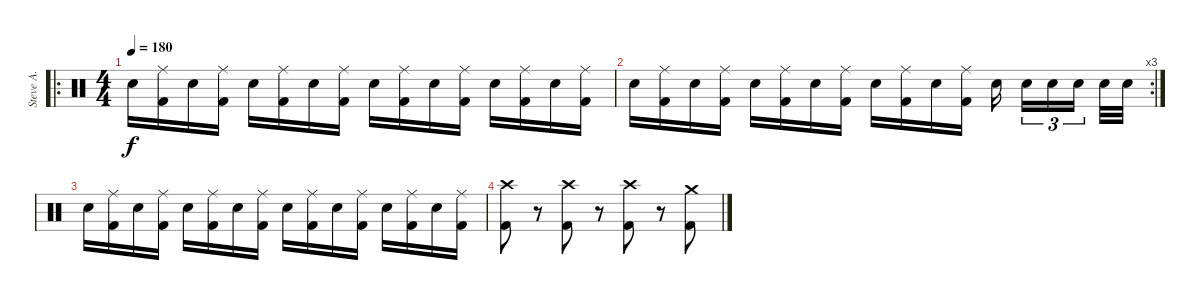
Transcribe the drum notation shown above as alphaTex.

\track ("Steve A." "Steve A.") {instrument percussion}
\staff {score}
\articulation defaults
\ro
\ts (4 4)
\tempo 180
\clef neutral
\ks c "Electric Snare (hit)".16{dy f}
("Kick (hit) 2" "Ride (middle)").16 "Electric Snare (hit)".16 ("Kick (hit) 2" "Ride (middle)").16 "Electric Snare (hit)".16 ("Kick (hit) 2" "Ride (middle)").16 "Electric Snare (hit)".16 ("Kick (hit) 2" "Ride (middle)").16 "Electric Snare (hit)".16 ("Kick (hit) 2" "Ride (middle)").16 "Electric Snare (hit)".16 ("Kick (hit) 2" "Ride (middle)").16 "Electric Snare (hit)".16 ("Kick (hit) 2" "Ride (middle)").16 "Electric Snare (hit)".16 ("Kick (hit) 2" "Ride (middle)").16 |
\rc 3 "Electric Snare (hit)".16
("Kick (hit) 2" "Ride (middle)").16 "Electric Snare (hit)".16 ("Kick (hit) 2" "Ride (middle)").16 "Electric Snare (hit)".16 ("Kick (hit) 2" "Ride (middle)").16 "Electric Snare (hit)".16 ("Kick (hit) 2" "Ride (middle)").16 "Electric Snare (hit)".16 ("Kick (hit) 2" "Ride (middle)").16 "Electric Snare (hit)".16 ("Kick (hit) 2" "Ride (middle)").16 "Electric Snare (hit)".16 "Electric Snare (hit)".16{tu (3 2)} "Electric Snare (hit)".16{tu (3 2)} "Electric Snare (hit)".16{tu (3 2)} "Electric Snare (hit)".32 "Electric Snare (hit)".32 |
"Electric Snare (hit)".16 ("Kick (hit) 2" "Ride (middle)").16 "Electric Snare (hit)".16 ("Kick (hit) 2" "Ride (middle)").16 "Electric Snare (hit)".16 ("Kick (hit) 2" "Ride (middle)").16 "Electric Snare (hit)".16 ("Kick (hit) 2" "Ride (middle)").16 "Electric Snare (hit)".16 ("Kick (hit) 2" "Ride (middle)").16 "Electric Snare (hit)".16 ("Kick (hit) 2" "Ride (middle)").16 "Electric Snare (hit)".16 ("Kick (hit) 2" "Ride (middle)").16 "Electric Snare (hit)".16 ("Kick (hit) 2" "Ride (middle)").16 |
("Kick (hit) 2" "Crash high (hit)").8 r.8 ("Kick (hit) 2" "Crash high (hit)").8 r.8 ("Kick (hit) 2" "Crash high (hit)").8 r.8 ("Kick (hit) 2" "Crash medium (hit)").8
